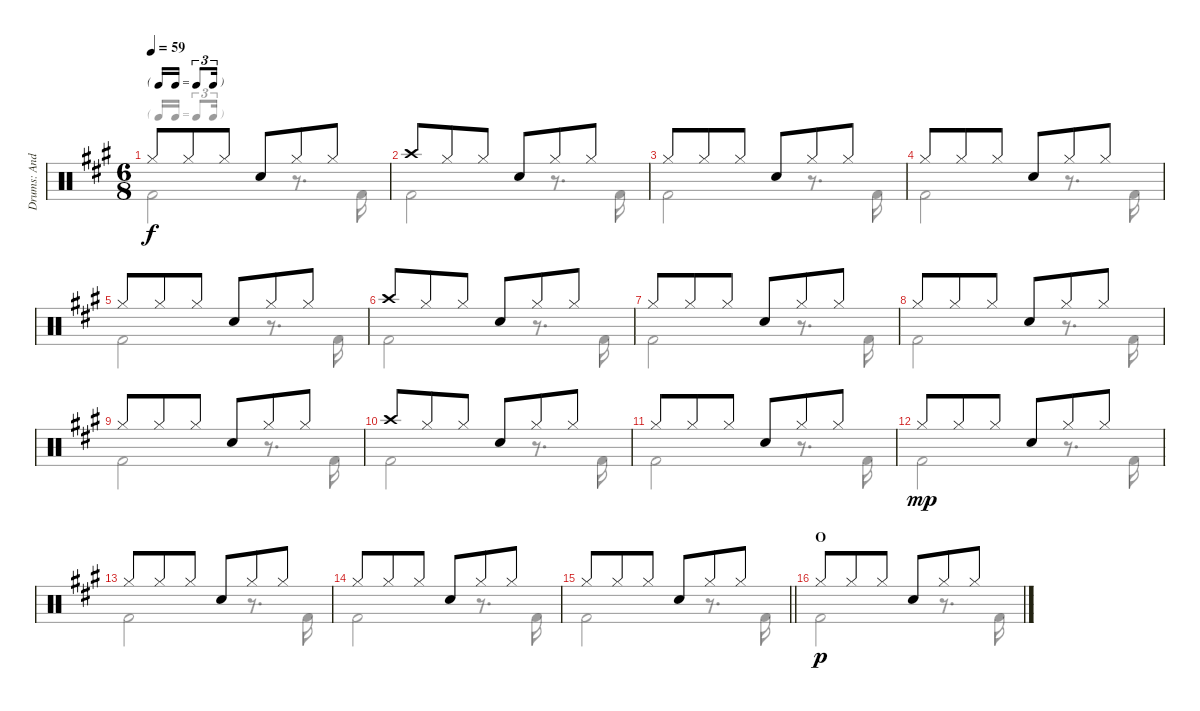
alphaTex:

\track ("Drums: Andy Newmark" "Drums: And") {instrument percussion}
\staff {score}
\articulation defaults
\voice
\ts (6 8)
\tf triplet16th
\tempo 59
\clef neutral
\ks a "Hi-Hat (closed)".8{dy f} "Hi-Hat (closed)".8 "Hi-Hat (closed)".8 "Snare (hit) 2".8 "Hi-Hat (closed)".8 "Hi-Hat (closed)".8
|
"Crash high (hit)".8 "Hi-Hat (closed)".8 "Hi-Hat (closed)".8 "Snare (hit) 2".8 "Hi-Hat (closed)".8 "Hi-Hat (closed)".8 |
"Hi-Hat (closed)".8 "Hi-Hat (closed)".8 "Hi-Hat (closed)".8 "Snare (hit) 2".8 "Hi-Hat (closed)".8 "Hi-Hat (closed)".8 |
"Hi-Hat (closed)".8 "Hi-Hat (closed)".8 "Hi-Hat (closed)".8 "Snare (hit) 2".8 "Hi-Hat (closed)".8 "Hi-Hat (closed)".8 |
"Hi-Hat (closed)".8 "Hi-Hat (closed)".8 "Hi-Hat (closed)".8 "Snare (hit) 2".8 "Hi-Hat (closed)".8 "Hi-Hat (closed)".8 |
"Crash high (hit)".8 "Hi-Hat (closed)".8 "Hi-Hat (closed)".8 "Snare (hit) 2".8 "Hi-Hat (closed)".8 "Hi-Hat (closed)".8 |
"Hi-Hat (closed)".8 "Hi-Hat (closed)".8 "Hi-Hat (closed)".8 "Snare (hit) 2".8 "Hi-Hat (closed)".8 "Hi-Hat (closed)".8 |
"Hi-Hat (closed)".8 "Hi-Hat (closed)".8 "Hi-Hat (closed)".8 "Snare (hit) 2".8 "Hi-Hat (closed)".8 "Hi-Hat (closed)".8 |
"Hi-Hat (closed)".8 "Hi-Hat (closed)".8 "Hi-Hat (closed)".8 "Snare (hit) 2".8 "Hi-Hat (closed)".8 "Hi-Hat (closed)".8 |
"Crash high (hit)".8 "Hi-Hat (closed)".8 "Hi-Hat (closed)".8 "Snare (hit) 2".8 "Hi-Hat (closed)".8 "Hi-Hat (closed)".8 |
"Hi-Hat (closed)".8 "Hi-Hat (closed)".8 "Hi-Hat (closed)".8 "Snare (hit) 2".8 "Hi-Hat (closed)".8 "Hi-Hat (closed)".8 |
"Hi-Hat (closed)".8{dy mp} "Hi-Hat (closed)".8 "Hi-Hat (closed)".8 "Snare (hit) 2".8 "Hi-Hat (closed)".8 "Hi-Hat (closed)".8 |
"Hi-Hat (closed)".8 "Hi-Hat (closed)".8 "Hi-Hat (closed)".8 "Snare (hit) 2".8 "Hi-Hat (closed)".8 "Hi-Hat (closed)".8 |
"Hi-Hat (closed)".8 "Hi-Hat (closed)".8 "Hi-Hat (closed)".8 "Snare (hit) 2".8 "Hi-Hat (closed)".8{volume 6} "Hi-Hat (closed)".8 |
\barLineRight lightlight "Hi-Hat (closed)".8 "Hi-Hat (closed)".8 "Hi-Hat (closed)".8 "Snare (hit) 2".8 "Hi-Hat (closed)".8 "Hi-Hat (closed)".8
|
\section ("" "O")
"Hi-Hat (closed)".8{dy p} "Hi-Hat (closed)".8 "Hi-Hat (closed)".8 "Snare (hit) 2".8 "Hi-Hat (closed)".8 "Hi-Hat (closed)".8
\voice
\clef neutral
\ottava regular
\simile none
\ks a "Kick (hit) 2".2{dy f}
r.8{d} "Kick (hit) 2".16 |
"Kick (hit) 2".2 r.8{d} "Kick (hit) 2".16 |
"Kick (hit) 2".2 r.8{d} "Kick (hit) 2".16 |
"Kick (hit) 2".2 r.8{d} "Kick (hit) 2".16 |
"Kick (hit) 2".2 r.8{d} "Kick (hit) 2".16 |
"Kick (hit) 2".2 r.8{d} "Kick (hit) 2".16 |
"Kick (hit) 2".2 r.8{d} "Kick (hit) 2".16 |
"Kick (hit) 2".2 r.8{d} "Kick (hit) 2".16 |
"Kick (hit) 2".2 r.8{d} "Kick (hit) 2".16 |
"Kick (hit) 2".2 r.8{d} "Kick (hit) 2".16 |
"Kick (hit) 2".2 r.8{d} "Kick (hit) 2".16 |
"Kick (hit) 2".2{dy mp} r.8{d} "Kick (hit) 2".16 |
"Kick (hit) 2".2 r.8{d} "Kick (hit) 2".16 |
"Kick (hit) 2".2 r.8{d} "Kick (hit) 2".16 |
\barLineRight lightlight "Kick (hit) 2".2
r.8{d} "Kick (hit) 2".16 |
"Kick (hit) 2".2{dy p} r.8{d} "Kick (hit) 2".16
